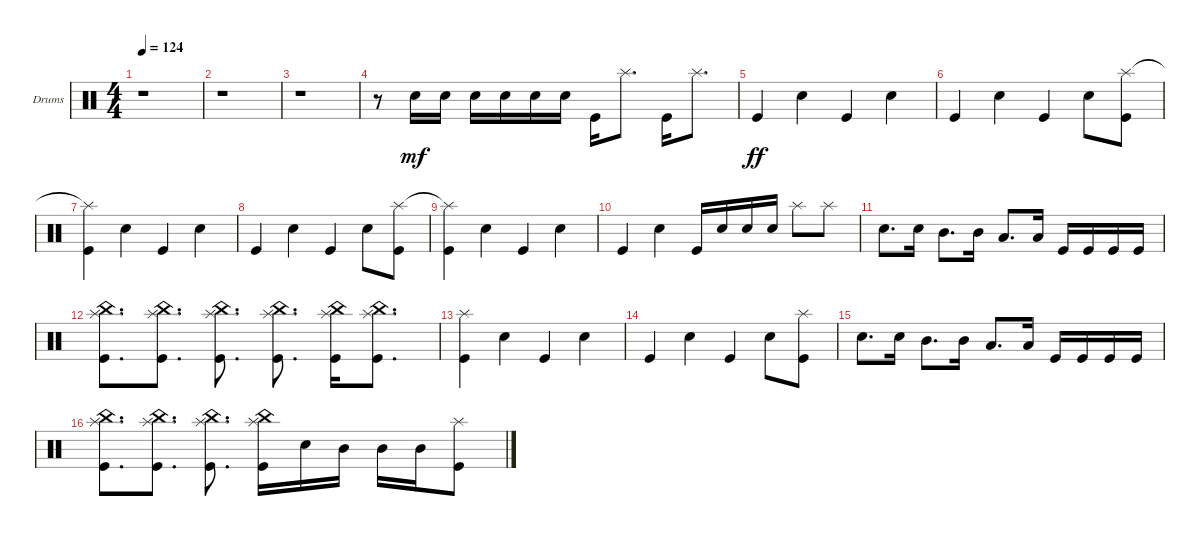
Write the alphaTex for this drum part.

\defaultSystemsLayout 4
\bracketExtendMode groupsimilarinstruments
\firstSystemTrackNameOrientation horizontal
\otherSystemsTrackNameOrientation horizontal
\track ("Nick Menza" "Drums") {instrument percussion}
\staff {score}
\articulation defaults
\ts (4 4)
\tempo 124
\clef neutral
\scale
0.472222
\ks c
r.1{dy mf} |
\scale
0.263889 r.1 |
\scale
0.263889 r.1 |
\scale
0.333333 r.8 "Snare (hit) 2".16 "Snare (hit) 2".16 "Snare (hit) 2".16 "Snare (hit) 2".16 "Snare (hit) 2".16 "Snare (hit) 2".16 "Kick (hit)".16 "Splash (hit)".8{d} "Kick (hit)".16 "Splash (hit)".8{d} |
\scale
0.333333 "Kick (hit)".4{dy ff} "Snare (hit) 2".4 "Kick (hit)".4 "Snare (hit) 2".4 |
\scale
0.333333 "Kick (hit)".4 "Snare (hit) 2".4 "Kick (hit)".4 "Snare (hit) 2".8 ("Splash (hit)" "Kick (hit)").8 |
\scale
0.333333 ("Splash (hit)"{t} "Kick (hit)").4 "Snare (hit) 2".4 "Kick (hit)".4 "Snare (hit) 2".4 |
\scale
0.333333 "Kick (hit)".4 "Snare (hit) 2".4 "Kick (hit)".4 "Snare (hit) 2".8 ("Splash (hit)" "Kick (hit)").8 |
\scale
0.333333 ("Splash (hit)"{t} "Kick (hit)").4 "Snare (hit) 2".4 "Kick (hit)".4 "Snare (hit) 2".4 |
\scale
0.333333 "Kick (hit)".4 "Snare (hit) 2".4 "Kick (hit)".16 "Snare (hit) 2".16 "Snare (hit) 2".16 "Snare (hit) 2".16 "Splash (hit)".8 "Splash (hit)".8 |
\scale
0.333333 "Snare (hit) 2".8{d} "Snare (hit) 2".16 "Mid Tom (hit)".8{d} "Mid Tom (hit)".16 "Low Tom (hit)".8{d} "Low Tom (hit)".16 "Kick (hit)".16 "Kick (hit)".16 "Kick (hit)".16 "Kick (hit)".16 |
\scale
0.333333 ("China (hit)" "Splash (hit)" "Kick (hit)").8{d} ("Splash (hit)" "China (hit)" "Kick (hit)").8{d} ("Splash (hit)" "China (hit)" "Kick (hit)").8{d} ("Splash (hit)" "China (hit)" "Kick (hit)").8{d} ("Splash (hit)" "China (hit)" "Kick (hit)").16 ("Splash (hit)" "China (hit)" "Kick (hit)").8{d} |
\scale
0.333333 ("Splash (hit)" "Kick (hit)").4 "Snare (hit) 2".4 "Kick (hit)".4 "Snare (hit) 2".4 |
\scale
0.333333 "Kick (hit)".4 "Snare (hit) 2".4 "Kick (hit)".4 "Snare (hit) 2".8 ("Splash (hit)" "Kick (hit)").8 |
\scale
0.333333 "Snare (hit) 2".8{d} "Snare (hit) 2".16 "Mid Tom (hit)".8{d} "Mid Tom (hit)".16 "Low Tom (hit)".8{d} "Low Tom (hit)".16 "Kick (hit)".16 "Kick (hit)".16 "Kick (hit)".16 "Kick (hit)".16 |
\scale
0.333333 ("China (hit)" "Splash (hit)" "Kick (hit)").8{d} ("Splash (hit)" "China (hit)" "Kick (hit)").8{d} ("Splash (hit)" "China (hit)" "Kick (hit)").8{d} ("Splash (hit)" "China (hit)" "Kick (hit)").16 "Snare (hit) 2".16 "Mid Tom (hit)".16 "Mid Tom (hit)".16 "Mid Tom (hit)".16 ("Splash (hit)" "Kick (hit)").8
